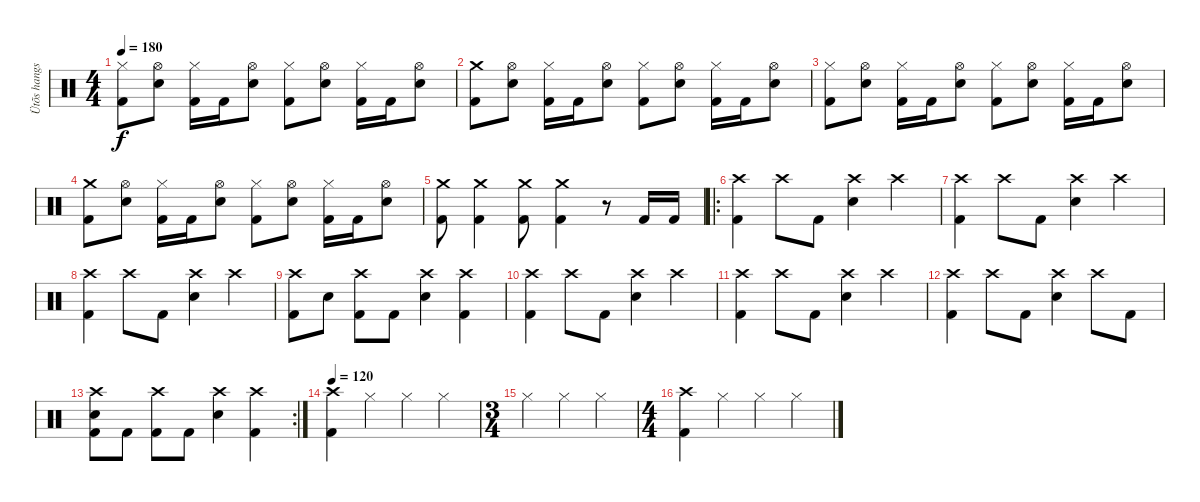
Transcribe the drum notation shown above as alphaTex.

\track ("Ütõs hangszer" "Ütõs hangs") {instrument percussion}
\staff {score}
\articulation defaults
\ts (4 4)
\tempo 180
\clef neutral
\ks c
("Hi-Hat (closed)" "Kick (hit) 2").8{dy f} ("Hi-Hat (open)" "Snare (hit) 2").8 ("Hi-Hat (closed)" "Kick (hit) 2").16 "Kick (hit) 2".16 ("Hi-Hat (open)" "Snare (hit) 2").8 ("Hi-Hat (closed)" "Kick (hit) 2").8 ("Hi-Hat (open)" "Snare (hit) 2").8 ("Hi-Hat (closed)" "Kick (hit) 2").16 "Kick (hit) 2".16 ("Hi-Hat (open)" "Snare (hit) 2").8 |
("Crash medium (hit)" "Kick (hit) 2").8 ("Hi-Hat (open)" "Snare (hit) 2").8 ("Hi-Hat (closed)" "Kick (hit) 2").16 "Kick (hit) 2".16 ("Hi-Hat (open)" "Snare (hit) 2").8 ("Hi-Hat (closed)" "Kick (hit) 2").8 ("Hi-Hat (open)" "Snare (hit) 2").8 ("Hi-Hat (closed)" "Kick (hit) 2").16 "Kick (hit) 2".16 ("Hi-Hat (open)" "Snare (hit) 2").8 |
("Hi-Hat (closed)" "Kick (hit) 2").8 ("Hi-Hat (open)" "Snare (hit) 2").8 ("Hi-Hat (closed)" "Kick (hit) 2").16 "Kick (hit) 2".16 ("Hi-Hat (open)" "Snare (hit) 2").8 ("Hi-Hat (closed)" "Kick (hit) 2").8 ("Hi-Hat (open)" "Snare (hit) 2").8 ("Hi-Hat (closed)" "Kick (hit) 2").16 "Kick (hit) 2".16 ("Hi-Hat (open)" "Snare (hit) 2").8 |
("Crash medium (hit)" "Kick (hit) 2").8 ("Hi-Hat (open)" "Snare (hit) 2").8 ("Hi-Hat (closed)" "Kick (hit) 2").16 "Kick (hit) 2".16 ("Hi-Hat (open)" "Snare (hit) 2").8 ("Hi-Hat (closed)" "Kick (hit) 2").8 ("Hi-Hat (open)" "Snare (hit) 2").8 ("Hi-Hat (closed)" "Kick (hit) 2").16 "Kick (hit) 2".16 ("Hi-Hat (open)" "Snare (hit) 2").8 |
("Crash medium (hit)" "Kick (hit) 2").8 ("Crash medium (hit)" "Kick (hit) 2").4 ("Crash medium (hit)" "Kick (hit) 2").8 ("Crash medium (hit)" "Kick (hit) 2").4 r.8 "Kick (hit) 2".16 "Kick (hit) 2".16 |
\ro
("Crash high (hit)" "Kick (hit) 2").4 "Crash high (hit)".8 "Kick (hit) 2".8 ("Crash high (hit)" "Snare (hit) 2").4 "Crash high (hit)".4 |
("Crash high (hit)" "Kick (hit) 2").4 "Crash high (hit)".8 "Kick (hit) 2".8 ("Crash high (hit)" "Snare (hit) 2").4 "Crash high (hit)".4 |
("Crash high (hit)" "Kick (hit) 2").4 "Crash high (hit)".8 "Kick (hit) 2".8 ("Crash high (hit)" "Snare (hit) 2").4 "Crash high (hit)".4 |
("Crash high (hit)" "Kick (hit) 2").8 "Snare (hit) 2".8 ("Crash high (hit)" "Kick (hit) 2").8 "Kick (hit) 2".8 ("Crash high (hit)" "Snare (hit) 2").4 ("Crash high (hit)" "Kick (hit) 2").4 |
("Crash high (hit)" "Kick (hit) 2").4 "Crash high (hit)".8 "Kick (hit) 2".8 ("Crash high (hit)" "Snare (hit) 2").4 "Crash high (hit)".4 |
("Crash high (hit)" "Kick (hit) 2").4 "Crash high (hit)".8 "Kick (hit) 2".8 ("Crash high (hit)" "Snare (hit) 2").4 "Crash high (hit)".4 |
("Crash high (hit)" "Kick (hit) 2").4 "Crash high (hit)".8 "Kick (hit) 2".8 ("Crash high (hit)" "Snare (hit) 2").4 "Crash high (hit)".8 "Kick (hit) 2".8 |
\rc 2
("Crash high (hit)" "Snare (hit) 2" "Kick (hit) 2").8 "Kick (hit) 2".8 ("Crash high (hit)" "Kick (hit) 2").8 "Kick (hit) 2".8 ("Crash high (hit)" "Snare (hit) 2").4 ("Crash high (hit)" "Kick (hit) 2").4 |
\tempo 120
("Crash high (hit)" "Kick (hit) 2").4 "Hi-Hat (closed)".4 "Hi-Hat (closed)".4 "Hi-Hat (closed)".4 |
\ts (3 4)
"Hi-Hat (closed)".4 "Hi-Hat (closed)".4 "Hi-Hat (closed)".4 |
\ts (4 4)
("Crash high (hit)" "Kick (hit) 2").4 "Hi-Hat (closed)".4 "Hi-Hat (closed)".4 "Hi-Hat (closed)".4
